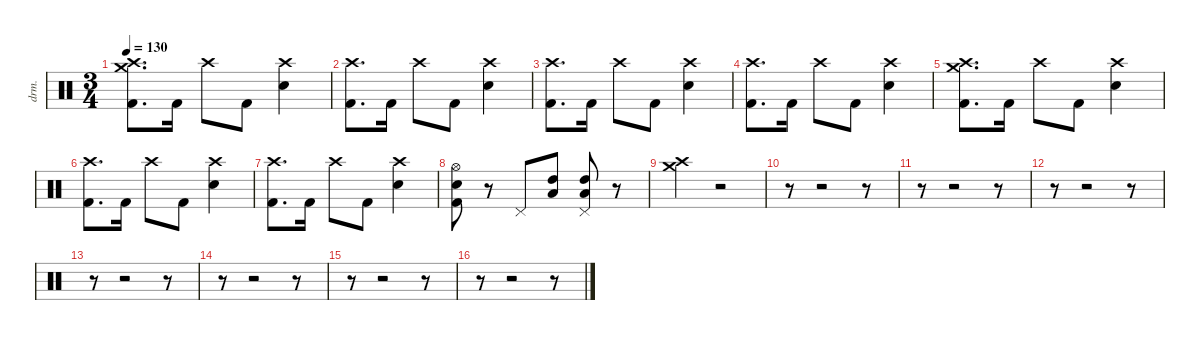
\defaultSystemsLayout 4
\hideDynamics
\bracketExtendMode nobrackets
\otherSystemsTrackNameOrientation horizontal
\track ("Percussion" "drm.") {instrument percussion}
\staff {score}
\articulation defaults
\ts (3 4)
\tempo 130
\clef neutral
\ks c
("Crash medium (hit)" "Crash high (hit)" "Kick (hit) 2").8{d dy f beam Down} "Kick (hit) 2".16{beam Down} "Crash high (hit)".8{beam Down} "Kick (hit) 2".8{beam Down} ("Crash high (hit)" "Snare (hit) 2").4{beam Down} |
("Crash high (hit)" "Kick (hit) 2").8{d beam Down} "Kick (hit) 2".16{beam Down} "Crash high (hit)".8{beam Down} "Kick (hit) 2".8{beam Down} ("Crash high (hit)" "Snare (hit) 2").4{beam Down} |
("Crash high (hit)" "Kick (hit) 2").8{d beam Down} "Kick (hit) 2".16{beam Down} "Crash high (hit)".8{beam Down} "Kick (hit) 2".8{beam Down} ("Crash high (hit)" "Snare (hit) 2").4{beam Down} |
("Crash high (hit)" "Kick (hit) 2").8{d beam Down} "Kick (hit) 2".16{beam Down} "Crash high (hit)".8{beam Down} "Kick (hit) 2".8{beam Down} ("Crash high (hit)" "Snare (hit) 2").4{beam Down} |
("Crash medium (hit)" "Crash high (hit)" "Kick (hit) 2").8{d beam Down} "Kick (hit) 2".16{beam Down} "Crash high (hit)".8{beam Down} "Kick (hit) 2".8{beam Down} ("Crash high (hit)" "Snare (hit) 2").4{beam Down} |
("Crash high (hit)" "Kick (hit) 2").8{d beam Down} "Kick (hit) 2".16{beam Down} "Crash high (hit)".8{beam Down} "Kick (hit) 2".8{beam Down} ("Crash high (hit)" "Snare (hit) 2").4{beam Down} |
("Crash high (hit)" "Kick (hit) 2").8{d beam Down} "Kick (hit) 2".16{beam Down} "Crash high (hit)".8{beam Down} "Kick (hit) 2".8{beam Down} ("Crash high (hit)" "Snare (hit) 2").4{beam Down} |
("Hi-Hat (open)" "Snare (hit) 2" "Kick (hit) 2").8{beam Down} r.8{beam Down} "Pedal Hi-Hat (hit)".8{beam Up} ("High Tom (hit)" "Low Floor Tom (hit)").8{beam Up} ("Pedal Hi-Hat (hit)" "High Tom (hit)" "Low Floor Tom (hit)").8{beam Up} r.8{beam Up} |
("Crash medium (hit)" "Crash high (hit)").4{beam Down} r.2{beam Down} |
r.8{beam Down} r.2{beam Down} r.8{beam Down} |
r.8{beam Down} r.2{beam Down} r.8{beam Down} |
r.8{beam Down} r.2{beam Down} r.8{beam Down} |
r.8{beam Down} r.2{beam Down} r.8{beam Down} |
r.8{beam Down} r.2{beam Down} r.8{beam Down} |
r.8{beam Down} r.2{beam Down} r.8{beam Down} |
r.8{beam Down} r.2{beam Down} r.8{beam Down}
